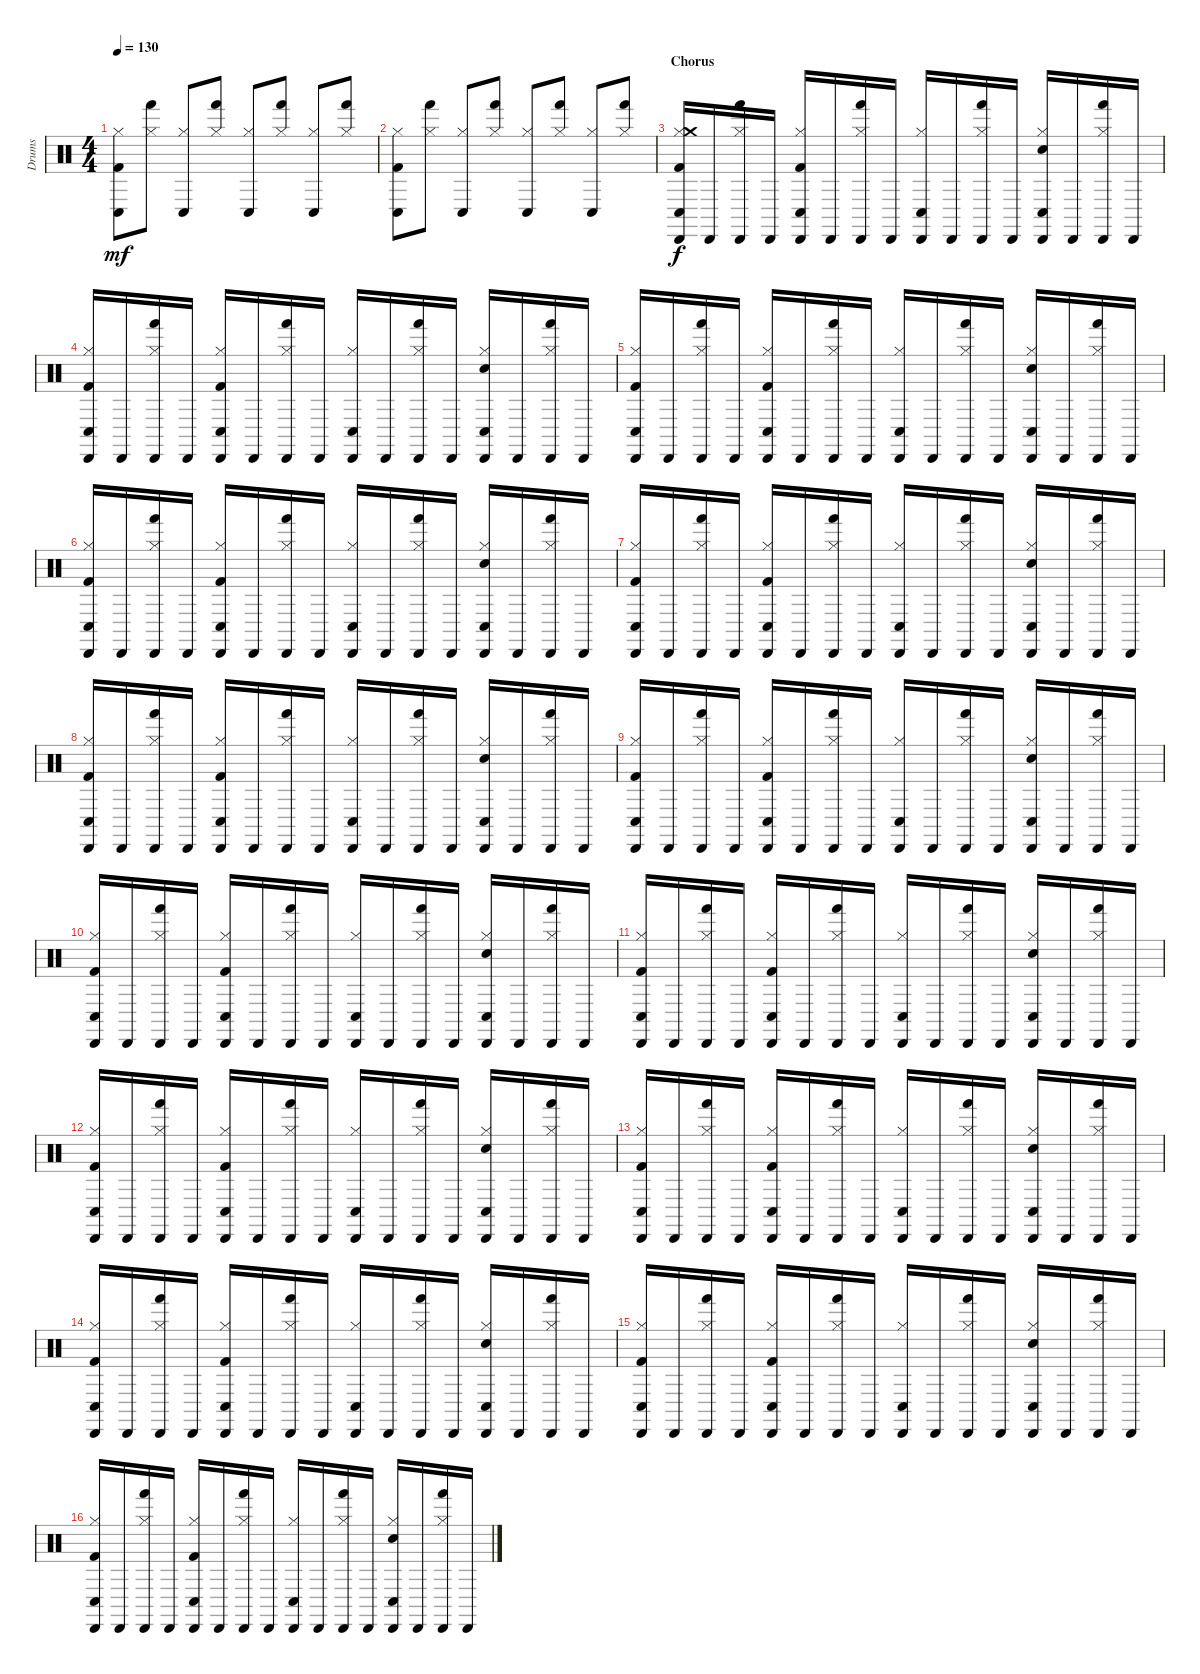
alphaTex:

\track ("Drums" "Drums") {instrument percussion}
\staff {score}
\articulation defaults
\ts (4 4)
\tempo 130
\clef neutral
\ks c
("Kick (hit) 2" "Conga low (hit)" "Hi-Hat (closed)").8{dy mf} ("Hand (hit)" "Hi-Hat (closed)").8 ("Hi-Hat (closed)" "Conga low (hit)").8 ("Hand (hit)" "Hi-Hat (closed)").8 ("Conga low (hit)" "Hi-Hat (closed)").8 ("Hi-Hat (closed)" "Hand (hit)").8 ("Hi-Hat (closed)" "Conga low (hit)").8 ("Hi-Hat (closed)" "Hand (hit)").8 |
("Kick (hit) 2" "Conga low (hit)" "Hi-Hat (closed)").8 ("Hand (hit)" "Hi-Hat (closed)").8 ("Hi-Hat (closed)" "Conga low (hit)").8 ("Hand (hit)" "Hi-Hat (closed)").8 ("Conga low (hit)" "Hi-Hat (closed)").8 ("Hi-Hat (closed)" "Hand (hit)").8 ("Hi-Hat (closed)" "Conga low (hit)").8 ("Hi-Hat (closed)" "Hand (hit)").8 |
\section ("" "Chorus")
("Kick (hit) 2" "Cabasa (hit)" "Conga low (hit)" "Hi-Hat (closed)" "Crash medium (hit)").16{dy f} "Cabasa (hit)".16 ("Hand (hit)" "Hi-Hat (closed)" "Cabasa (hit)").16 "Cabasa (hit)".16 ("Cabasa (hit)" "Hi-Hat (closed)" "Kick (hit) 2" "Conga low (hit)").16 "Cabasa (hit)".16 ("Hand (hit)" "Cabasa (hit)" "Hi-Hat (closed)").16 "Cabasa (hit)".16 ("Hi-Hat (closed)" "Conga low (hit)" "Cabasa (hit)").16 "Cabasa (hit)".16 ("Hand (hit)" "Cabasa (hit)" "Hi-Hat (closed)").16 "Cabasa (hit)".16 ("Hand Clap (hit)" "Cabasa (hit)" "Hi-Hat (closed)" "Conga low (hit)").16 "Cabasa (hit)".16 ("Cabasa (hit)" "Hi-Hat (closed)" "Hand (hit)").16 "Cabasa (hit)".16 |
("Kick (hit) 2" "Cabasa (hit)" "Conga low (hit)" "Hi-Hat (closed)").16 "Cabasa (hit)".16 ("Hand (hit)" "Hi-Hat (closed)" "Cabasa (hit)").16 "Cabasa (hit)".16 ("Cabasa (hit)" "Hi-Hat (closed)" "Kick (hit) 2" "Conga low (hit)").16 "Cabasa (hit)".16 ("Hand (hit)" "Cabasa (hit)" "Hi-Hat (closed)").16 "Cabasa (hit)".16 ("Hi-Hat (closed)" "Conga low (hit)" "Cabasa (hit)").16 "Cabasa (hit)".16 ("Hand (hit)" "Cabasa (hit)" "Hi-Hat (closed)").16 "Cabasa (hit)".16 ("Hand Clap (hit)" "Cabasa (hit)" "Hi-Hat (closed)" "Conga low (hit)").16 "Cabasa (hit)".16 ("Cabasa (hit)" "Hi-Hat (closed)" "Hand (hit)").16 "Cabasa (hit)".16 |
("Kick (hit) 2" "Cabasa (hit)" "Conga low (hit)" "Hi-Hat (closed)").16 "Cabasa (hit)".16 ("Hand (hit)" "Hi-Hat (closed)" "Cabasa (hit)").16 "Cabasa (hit)".16 ("Cabasa (hit)" "Hi-Hat (closed)" "Kick (hit) 2" "Conga low (hit)").16 "Cabasa (hit)".16 ("Hand (hit)" "Cabasa (hit)" "Hi-Hat (closed)").16 "Cabasa (hit)".16 ("Hi-Hat (closed)" "Conga low (hit)" "Cabasa (hit)").16 "Cabasa (hit)".16 ("Hand (hit)" "Cabasa (hit)" "Hi-Hat (closed)").16 "Cabasa (hit)".16 ("Hand Clap (hit)" "Cabasa (hit)" "Hi-Hat (closed)" "Conga low (hit)").16 "Cabasa (hit)".16 ("Cabasa (hit)" "Hi-Hat (closed)" "Hand (hit)").16 "Cabasa (hit)".16 |
("Kick (hit) 2" "Cabasa (hit)" "Conga low (hit)" "Hi-Hat (closed)").16 "Cabasa (hit)".16 ("Hand (hit)" "Hi-Hat (closed)" "Cabasa (hit)").16 "Cabasa (hit)".16 ("Cabasa (hit)" "Hi-Hat (closed)" "Kick (hit) 2" "Conga low (hit)").16 "Cabasa (hit)".16 ("Hand (hit)" "Cabasa (hit)" "Hi-Hat (closed)").16 "Cabasa (hit)".16 ("Hi-Hat (closed)" "Conga low (hit)" "Cabasa (hit)").16 "Cabasa (hit)".16 ("Hand (hit)" "Cabasa (hit)" "Hi-Hat (closed)").16 "Cabasa (hit)".16 ("Hand Clap (hit)" "Cabasa (hit)" "Hi-Hat (closed)" "Conga low (hit)").16 "Cabasa (hit)".16 ("Cabasa (hit)" "Hi-Hat (closed)" "Hand (hit)").16 "Cabasa (hit)".16 |
("Kick (hit) 2" "Cabasa (hit)" "Conga low (hit)" "Hi-Hat (closed)").16 "Cabasa (hit)".16 ("Hand (hit)" "Hi-Hat (closed)" "Cabasa (hit)").16 "Cabasa (hit)".16 ("Cabasa (hit)" "Hi-Hat (closed)" "Kick (hit) 2" "Conga low (hit)").16 "Cabasa (hit)".16 ("Hand (hit)" "Cabasa (hit)" "Hi-Hat (closed)").16 "Cabasa (hit)".16 ("Hi-Hat (closed)" "Conga low (hit)" "Cabasa (hit)").16 "Cabasa (hit)".16 ("Hand (hit)" "Cabasa (hit)" "Hi-Hat (closed)").16 "Cabasa (hit)".16 ("Hand Clap (hit)" "Cabasa (hit)" "Hi-Hat (closed)" "Conga low (hit)").16 "Cabasa (hit)".16 ("Cabasa (hit)" "Hi-Hat (closed)" "Hand (hit)").16 "Cabasa (hit)".16 |
("Kick (hit) 2" "Cabasa (hit)" "Conga low (hit)" "Hi-Hat (closed)").16 "Cabasa (hit)".16 ("Hand (hit)" "Hi-Hat (closed)" "Cabasa (hit)").16 "Cabasa (hit)".16 ("Cabasa (hit)" "Hi-Hat (closed)" "Kick (hit) 2" "Conga low (hit)").16 "Cabasa (hit)".16 ("Hand (hit)" "Cabasa (hit)" "Hi-Hat (closed)").16 "Cabasa (hit)".16 ("Hi-Hat (closed)" "Conga low (hit)" "Cabasa (hit)").16 "Cabasa (hit)".16 ("Hand (hit)" "Cabasa (hit)" "Hi-Hat (closed)").16 "Cabasa (hit)".16 ("Hand Clap (hit)" "Cabasa (hit)" "Hi-Hat (closed)" "Conga low (hit)").16 "Cabasa (hit)".16 ("Cabasa (hit)" "Hi-Hat (closed)" "Hand (hit)").16 "Cabasa (hit)".16 |
("Kick (hit) 2" "Cabasa (hit)" "Conga low (hit)" "Hi-Hat (closed)").16 "Cabasa (hit)".16 ("Hand (hit)" "Hi-Hat (closed)" "Cabasa (hit)").16 "Cabasa (hit)".16 ("Cabasa (hit)" "Hi-Hat (closed)" "Kick (hit) 2" "Conga low (hit)").16 "Cabasa (hit)".16 ("Hand (hit)" "Cabasa (hit)" "Hi-Hat (closed)").16 "Cabasa (hit)".16 ("Hi-Hat (closed)" "Conga low (hit)" "Cabasa (hit)").16 "Cabasa (hit)".16 ("Hand (hit)" "Cabasa (hit)" "Hi-Hat (closed)").16 "Cabasa (hit)".16 ("Hand Clap (hit)" "Cabasa (hit)" "Hi-Hat (closed)" "Conga low (hit)").16 "Cabasa (hit)".16 ("Cabasa (hit)" "Hi-Hat (closed)" "Hand (hit)").16 "Cabasa (hit)".16 |
("Kick (hit) 2" "Cabasa (hit)" "Conga low (hit)" "Hi-Hat (closed)").16 "Cabasa (hit)".16 ("Hand (hit)" "Hi-Hat (closed)" "Cabasa (hit)").16 "Cabasa (hit)".16 ("Cabasa (hit)" "Hi-Hat (closed)" "Kick (hit) 2" "Conga low (hit)").16 "Cabasa (hit)".16 ("Hand (hit)" "Cabasa (hit)" "Hi-Hat (closed)").16 "Cabasa (hit)".16 ("Hi-Hat (closed)" "Conga low (hit)" "Cabasa (hit)").16 "Cabasa (hit)".16 ("Hand (hit)" "Cabasa (hit)" "Hi-Hat (closed)").16 "Cabasa (hit)".16 ("Hand Clap (hit)" "Cabasa (hit)" "Hi-Hat (closed)" "Conga low (hit)").16 "Cabasa (hit)".16 ("Cabasa (hit)" "Hi-Hat (closed)" "Hand (hit)").16 "Cabasa (hit)".16 |
("Kick (hit) 2" "Cabasa (hit)" "Conga low (hit)" "Hi-Hat (closed)").16 "Cabasa (hit)".16 ("Hand (hit)" "Hi-Hat (closed)" "Cabasa (hit)").16 "Cabasa (hit)".16 ("Cabasa (hit)" "Hi-Hat (closed)" "Kick (hit) 2" "Conga low (hit)").16 "Cabasa (hit)".16 ("Hand (hit)" "Cabasa (hit)" "Hi-Hat (closed)").16 "Cabasa (hit)".16 ("Hi-Hat (closed)" "Conga low (hit)" "Cabasa (hit)").16 "Cabasa (hit)".16 ("Hand (hit)" "Cabasa (hit)" "Hi-Hat (closed)").16 "Cabasa (hit)".16 ("Hand Clap (hit)" "Cabasa (hit)" "Hi-Hat (closed)" "Conga low (hit)").16 "Cabasa (hit)".16 ("Cabasa (hit)" "Hi-Hat (closed)" "Hand (hit)").16 "Cabasa (hit)".16 |
("Kick (hit) 2" "Cabasa (hit)" "Conga low (hit)" "Hi-Hat (closed)").16 "Cabasa (hit)".16 ("Hand (hit)" "Hi-Hat (closed)" "Cabasa (hit)").16 "Cabasa (hit)".16 ("Cabasa (hit)" "Hi-Hat (closed)" "Kick (hit) 2" "Conga low (hit)").16 "Cabasa (hit)".16 ("Hand (hit)" "Cabasa (hit)" "Hi-Hat (closed)").16 "Cabasa (hit)".16 ("Hi-Hat (closed)" "Conga low (hit)" "Cabasa (hit)").16 "Cabasa (hit)".16 ("Hand (hit)" "Cabasa (hit)" "Hi-Hat (closed)").16 "Cabasa (hit)".16 ("Hand Clap (hit)" "Cabasa (hit)" "Hi-Hat (closed)" "Conga low (hit)").16 "Cabasa (hit)".16 ("Cabasa (hit)" "Hi-Hat (closed)" "Hand (hit)").16 "Cabasa (hit)".16 |
("Kick (hit) 2" "Cabasa (hit)" "Conga low (hit)" "Hi-Hat (closed)").16 "Cabasa (hit)".16 ("Hand (hit)" "Hi-Hat (closed)" "Cabasa (hit)").16 "Cabasa (hit)".16 ("Cabasa (hit)" "Hi-Hat (closed)" "Kick (hit) 2" "Conga low (hit)").16 "Cabasa (hit)".16 ("Hand (hit)" "Cabasa (hit)" "Hi-Hat (closed)").16 "Cabasa (hit)".16 ("Hi-Hat (closed)" "Conga low (hit)" "Cabasa (hit)").16 "Cabasa (hit)".16 ("Hand (hit)" "Cabasa (hit)" "Hi-Hat (closed)").16 "Cabasa (hit)".16 ("Hand Clap (hit)" "Cabasa (hit)" "Hi-Hat (closed)" "Conga low (hit)").16 "Cabasa (hit)".16 ("Cabasa (hit)" "Hi-Hat (closed)" "Hand (hit)").16 "Cabasa (hit)".16 |
("Kick (hit) 2" "Cabasa (hit)" "Conga low (hit)" "Hi-Hat (closed)").16 "Cabasa (hit)".16 ("Hand (hit)" "Hi-Hat (closed)" "Cabasa (hit)").16 "Cabasa (hit)".16 ("Cabasa (hit)" "Hi-Hat (closed)" "Kick (hit) 2" "Conga low (hit)").16 "Cabasa (hit)".16 ("Hand (hit)" "Cabasa (hit)" "Hi-Hat (closed)").16 "Cabasa (hit)".16 ("Hi-Hat (closed)" "Conga low (hit)" "Cabasa (hit)").16 "Cabasa (hit)".16 ("Hand (hit)" "Cabasa (hit)" "Hi-Hat (closed)").16 "Cabasa (hit)".16 ("Hand Clap (hit)" "Cabasa (hit)" "Hi-Hat (closed)" "Conga low (hit)").16 "Cabasa (hit)".16 ("Cabasa (hit)" "Hi-Hat (closed)" "Hand (hit)").16 "Cabasa (hit)".16 |
("Kick (hit) 2" "Cabasa (hit)" "Conga low (hit)" "Hi-Hat (closed)").16 "Cabasa (hit)".16 ("Hand (hit)" "Hi-Hat (closed)" "Cabasa (hit)").16 "Cabasa (hit)".16 ("Cabasa (hit)" "Hi-Hat (closed)" "Kick (hit) 2" "Conga low (hit)").16 "Cabasa (hit)".16 ("Hand (hit)" "Cabasa (hit)" "Hi-Hat (closed)").16 "Cabasa (hit)".16 ("Hi-Hat (closed)" "Conga low (hit)" "Cabasa (hit)").16 "Cabasa (hit)".16 ("Hand (hit)" "Cabasa (hit)" "Hi-Hat (closed)").16 "Cabasa (hit)".16 ("Hand Clap (hit)" "Cabasa (hit)" "Hi-Hat (closed)" "Conga low (hit)").16 "Cabasa (hit)".16 ("Cabasa (hit)" "Hi-Hat (closed)" "Hand (hit)").16 "Cabasa (hit)".16 |
("Kick (hit) 2" "Cabasa (hit)" "Conga low (hit)" "Hi-Hat (closed)").16 "Cabasa (hit)".16 ("Hand (hit)" "Hi-Hat (closed)" "Cabasa (hit)").16 "Cabasa (hit)".16 ("Cabasa (hit)" "Hi-Hat (closed)" "Kick (hit) 2" "Conga low (hit)").16 "Cabasa (hit)".16 ("Hand (hit)" "Cabasa (hit)" "Hi-Hat (closed)").16 "Cabasa (hit)".16 ("Hi-Hat (closed)" "Conga low (hit)" "Cabasa (hit)").16 "Cabasa (hit)".16 ("Hand (hit)" "Cabasa (hit)" "Hi-Hat (closed)").16 "Cabasa (hit)".16 ("Hand Clap (hit)" "Cabasa (hit)" "Hi-Hat (closed)" "Conga low (hit)").16 "Cabasa (hit)".16 ("Cabasa (hit)" "Hi-Hat (closed)" "Hand (hit)").16 "Cabasa (hit)".16
